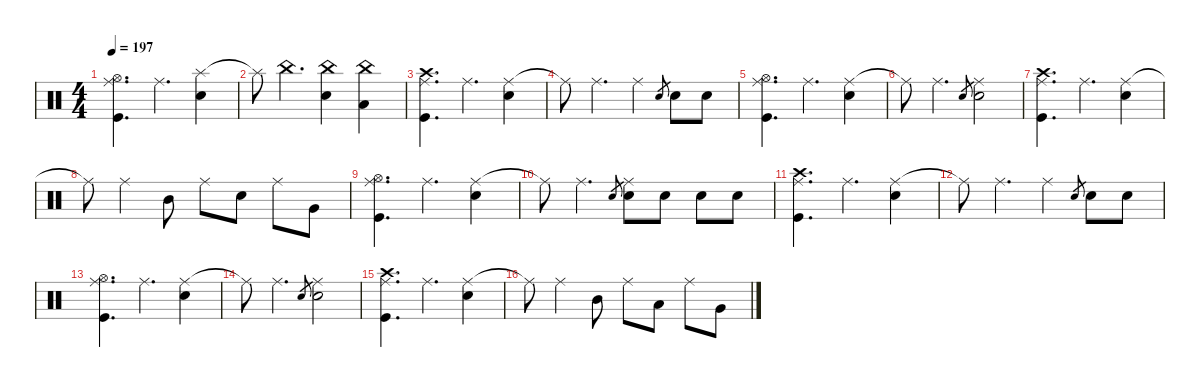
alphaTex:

\defaultSystemsLayout 4
\hideDynamics
\bracketExtendMode nobrackets
\singleTrackTrackNamePolicy hidden
\multiTrackTrackNamePolicy hidden
\firstSystemTrackNameMode fullname
\firstSystemTrackNameOrientation horizontal
\otherSystemsTrackNameOrientation horizontal
\track ("Drums" "drm.") {defaultSystemsLayout 4 instrument percussion}
\staff {score}
\articulation defaults
\ts (4 4)
\tempo 197
\clef neutral
\ks c
("Hi-Hat (open)" "Ride (middle)" "Kick (hit)").4{d dy f beam Down} "Ride (middle)".4{d beam Down} ("Splash (hit)" "Snare (hit) 2").4{dy mp beam Down} |
"Splash (hit)"{t}.8{dy f beam Down} "China (hit)".4{d dy p beam Down} ("China (hit)" "Snare (hit) 2").4{dy mp beam Down} ("China (hit)" "Low Tom (hit)").4{dy mf beam Down} |
("Crash high (hit)" "Ride (middle)" "Kick (hit)").4{d dy f beam Down} "Ride (middle)".4{d beam Down} ("Ride (middle)" "Snare (hit) 2").4{beam Down} |
"Ride (middle)"{t}.8{beam Down} "Ride (middle)".4{d beam Down} "Ride (middle)".4{beam Down} "Electric Snare (hit)".8{gr dy p beam Up} "Snare (hit) 2".8{dy mp beam Down} "Snare (hit) 2".8{dy mf beam Down} |
("Hi-Hat (open)" "Ride (middle)" "Kick (hit)").4{d dy f beam Down} "Ride (middle)".4{d beam Down} ("Ride (middle)" "Snare (hit) 2").4{beam Down} |
"Ride (middle)"{t}.8{beam Down} "Ride (middle)".4{d beam Down} "Electric Snare (hit)".8{gr dy pp beam Up} ("Ride (middle)" "Snare (hit) 2").2{dy f beam Down} |
("Crash high (hit)" "Ride (middle)" "Kick (hit)").4{d beam Down} "Ride (middle)".4{d beam Down} ("Ride (middle)" "Snare (hit) 2").4{beam Down} |
"Ride (middle)"{t}.8{beam Down} "Ride (middle)".4{beam Down} "Mid Tom (hit)".8{dy mp beam Down} "Ride (middle)".8{dy f beam Down} "Snare (hit) 2".8{dy mp beam Down} "Ride (middle)".8{dy f beam Down} "Very Low Tom (hit)".8{dy mp beam Down} |
("Hi-Hat (open)" "Ride (middle)" "Kick (hit)").4{d dy f beam Down} "Ride (middle)".4{d beam Down} ("Ride (middle)" "Snare (hit) 2").4{beam Down} |
"Ride (middle)"{t}.8{beam Down} "Ride (middle)".4{d beam Down} "Electric Snare (hit)".8{gr dy pp beam Up} ("Ride (middle)" "Snare (hit) 2").8{dy f beam Down} "Snare (hit) 2".8{dy mp beam Down} "Snare (hit) 2".8{beam Down} "Snare (hit) 2".8{dy mf beam Down} |
("Crash high (hit)" "Ride (middle)" "Kick (hit)").4{d dy f beam Down} "Ride (middle)".4{d beam Down} ("Ride (middle)" "Snare (hit) 2").4{beam Down} |
"Ride (middle)"{t}.8{beam Down} "Ride (middle)".4{d beam Down} "Ride (middle)".4{beam Down} "Electric Snare (hit)".8{gr dy p beam Up} "Snare (hit) 2".8{dy mp beam Down} "Snare (hit) 2".8{dy mf beam Down} |
("Hi-Hat (open)" "Ride (middle)" "Kick (hit)").4{d dy f beam Down} "Ride (middle)".4{d beam Down} ("Ride (middle)" "Snare (hit) 2").4{beam Down} |
"Ride (middle)"{t}.8{beam Down} "Ride (middle)".4{d beam Down} "Electric Snare (hit)".8{gr dy pp beam Up} ("Ride (middle)" "Snare (hit) 2").2{dy f beam Down} |
("Crash high (hit)" "Ride (middle)" "Kick (hit)").4{d beam Down} "Ride (middle)".4{d beam Down} ("Ride (middle)" "Snare (hit) 2").4{beam Down} |
"Ride (middle)"{t}.8{beam Down} "Ride (middle)".4{beam Down} "Mid Tom (hit)".8{dy mp beam Down} "Ride (middle)".8{dy f beam Down} "Low Tom (hit)".8{dy mp beam Down} "Ride (middle)".8{dy f beam Down} "Very Low Tom (hit)".8{dy mp beam Down}
